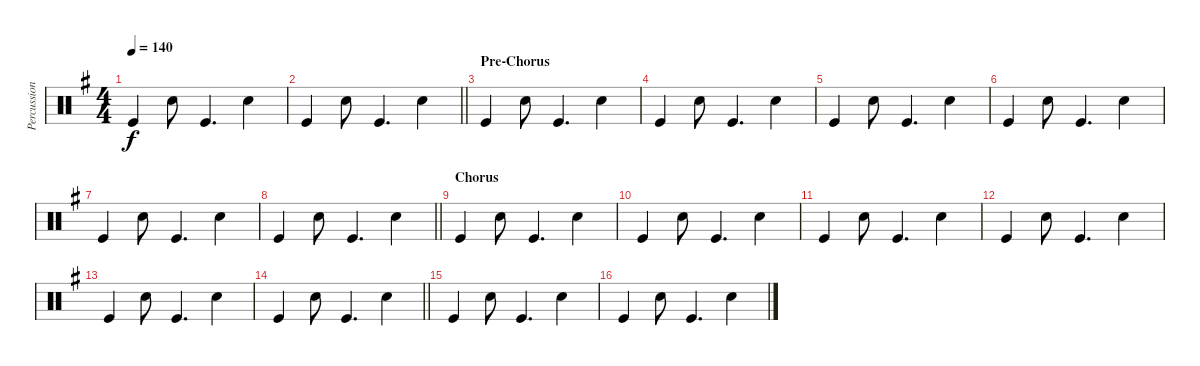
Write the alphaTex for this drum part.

\track ("Percussion" "Percussion") {instrument percussion}
\staff {score}
\articulation defaults
\ts (4 4)
\tempo 140
\clef neutral
\ks g "Kick (hit)".4{dy f} "Electric Snare (hit)".8 "Kick (hit)".4{d} "Electric Snare (hit)".4
|
\barLineRight lightlight "Kick (hit)".4 "Electric Snare (hit)".8 "Kick (hit)".4{d} "Electric Snare (hit)".4
|
\section ("" "Pre-Chorus")
"Kick (hit)".4 "Electric Snare (hit)".8 "Kick (hit)".4{d} "Electric Snare (hit)".4 |
"Kick (hit)".4 "Electric Snare (hit)".8 "Kick (hit)".4{d} "Electric Snare (hit)".4 |
"Kick (hit)".4 "Electric Snare (hit)".8 "Kick (hit)".4{d} "Electric Snare (hit)".4 |
"Kick (hit)".4 "Electric Snare (hit)".8 "Kick (hit)".4{d} "Electric Snare (hit)".4 |
"Kick (hit)".4 "Electric Snare (hit)".8 "Kick (hit)".4{d} "Electric Snare (hit)".4 |
\barLineRight lightlight "Kick (hit)".4 "Electric Snare (hit)".8 "Kick (hit)".4{d} "Electric Snare (hit)".4
|
\section ("" "Chorus")
"Kick (hit)".4 "Electric Snare (hit)".8 "Kick (hit)".4{d} "Electric Snare (hit)".4 |
"Kick (hit)".4 "Electric Snare (hit)".8 "Kick (hit)".4{d} "Electric Snare (hit)".4 |
"Kick (hit)".4 "Electric Snare (hit)".8 "Kick (hit)".4{d} "Electric Snare (hit)".4 |
"Kick (hit)".4 "Electric Snare (hit)".8 "Kick (hit)".4{d} "Electric Snare (hit)".4 |
"Kick (hit)".4 "Electric Snare (hit)".8 "Kick (hit)".4{d} "Electric Snare (hit)".4 |
\barLineRight lightlight "Kick (hit)".4 "Electric Snare (hit)".8 "Kick (hit)".4{d} "Electric Snare (hit)".4
|
"Kick (hit)".4 "Electric Snare (hit)".8 "Kick (hit)".4{d} "Electric Snare (hit)".4 |
"Kick (hit)".4 "Electric Snare (hit)".8 "Kick (hit)".4{d} "Electric Snare (hit)".4
